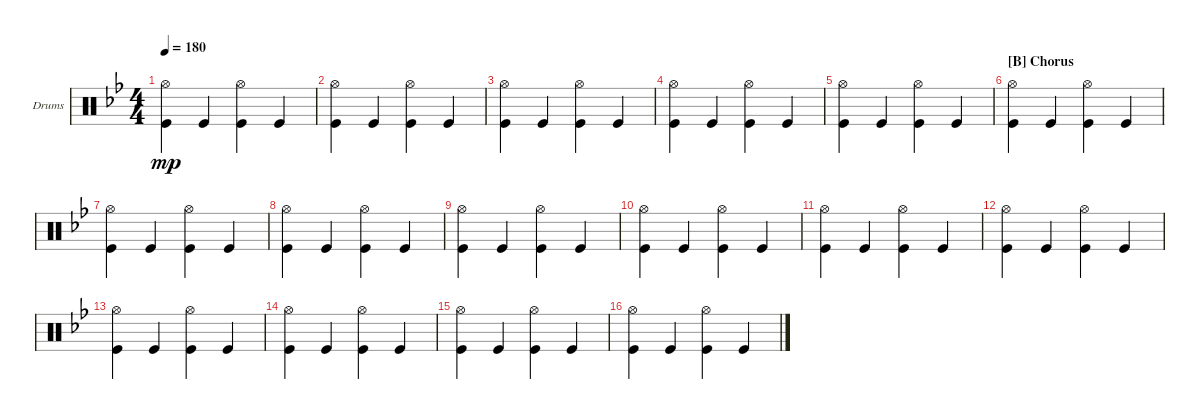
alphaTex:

\defaultSystemsLayout 4
\bracketExtendMode groupsimilarinstruments
\firstSystemTrackNameOrientation horizontal
\otherSystemsTrackNameOrientation horizontal
\track ("Drumkit" "Drums") {instrument percussion}
\staff {score}
\articulation defaults
\ts (4 4)
\tempo 180
\clef neutral
\ks bb
("Hi-Hat (open)" "Kick (hit)").4{dy mp} "Kick (hit)".4 ("Kick (hit)" "Hi-Hat (open)").4 "Kick (hit)".4 |
("Hi-Hat (open)" "Kick (hit)").4 "Kick (hit)".4 ("Kick (hit)" "Hi-Hat (open)").4 "Kick (hit)".4 |
("Hi-Hat (open)" "Kick (hit)").4 "Kick (hit)".4 ("Kick (hit)" "Hi-Hat (open)").4 "Kick (hit)".4 |
("Hi-Hat (open)" "Kick (hit)").4 "Kick (hit)".4 ("Kick (hit)" "Hi-Hat (open)").4 "Kick (hit)".4 |
("Hi-Hat (open)" "Kick (hit)").4 "Kick (hit)".4 ("Kick (hit)" "Hi-Hat (open)").4 "Kick (hit)".4 |
\section ("B" "Chorus")
("Hi-Hat (open)" "Kick (hit)").4 "Kick (hit)".4 ("Kick (hit)" "Hi-Hat (open)").4 "Kick (hit)".4 |
("Hi-Hat (open)" "Kick (hit)").4 "Kick (hit)".4 ("Kick (hit)" "Hi-Hat (open)").4 "Kick (hit)".4 |
("Hi-Hat (open)" "Kick (hit)").4 "Kick (hit)".4 ("Kick (hit)" "Hi-Hat (open)").4 "Kick (hit)".4 |
("Hi-Hat (open)" "Kick (hit)").4 "Kick (hit)".4 ("Kick (hit)" "Hi-Hat (open)").4 "Kick (hit)".4 |
("Hi-Hat (open)" "Kick (hit)").4 "Kick (hit)".4 ("Kick (hit)" "Hi-Hat (open)").4 "Kick (hit)".4 |
("Hi-Hat (open)" "Kick (hit)").4 "Kick (hit)".4 ("Kick (hit)" "Hi-Hat (open)").4 "Kick (hit)".4 |
("Hi-Hat (open)" "Kick (hit)").4 "Kick (hit)".4 ("Kick (hit)" "Hi-Hat (open)").4 "Kick (hit)".4 |
("Hi-Hat (open)" "Kick (hit)").4 "Kick (hit)".4 ("Kick (hit)" "Hi-Hat (open)").4 "Kick (hit)".4 |
("Hi-Hat (open)" "Kick (hit)").4 "Kick (hit)".4 ("Kick (hit)" "Hi-Hat (open)").4 "Kick (hit)".4 |
("Hi-Hat (open)" "Kick (hit)").4 "Kick (hit)".4 ("Kick (hit)" "Hi-Hat (open)").4 "Kick (hit)".4 |
("Hi-Hat (open)" "Kick (hit)").4 "Kick (hit)".4 ("Kick (hit)" "Hi-Hat (open)").4 "Kick (hit)".4
